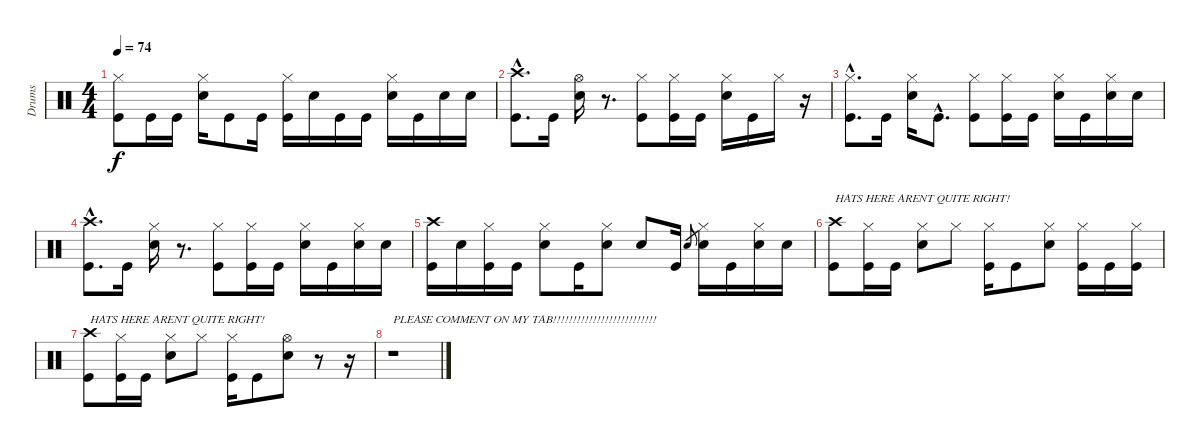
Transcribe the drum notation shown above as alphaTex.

\track ("Drums" "Drums") {instrument percussion}
\staff {score}
\articulation defaults
\ts (4 4)
\tempo 74
\clef neutral
\ks c
("Hi-Hat (closed)" "Kick (hit)").8{dy f} "Kick (hit)".16 "Kick (hit)".16 ("Hi-Hat (closed)" "Snare (hit) 2").16 "Kick (hit)".8 "Kick (hit)".16 ("Hi-Hat (closed)" "Kick (hit)").16 "Snare (hit) 2".16 "Kick (hit)".16 "Kick (hit)".16 ("Hi-Hat (closed)" "Snare (hit) 2").16 "Kick (hit)".16 "Snare (hit) 2".16 "Snare (hit) 2".16 |
("Crash high (hit)"{hac} "Kick (hit)"{hac}).8{d} "Kick (hit)".16 ("Hi-Hat (open)" "Snare (hit) 2").16 r.8{d} ("Hi-Hat (closed)" "Kick (hit)").8 ("Hi-Hat (closed)" "Kick (hit)").16 "Kick (hit)".16 ("Hi-Hat (closed)" "Snare (hit) 2").16 "Kick (hit)".16 "Hi-Hat (closed)".16 r.16 |
("Hi-Hat (closed)"{hac} "Kick (hit)"{hac}).8{d} "Kick (hit)".16 ("Hi-Hat (closed)" "Snare (hit) 2").16 "Kick (hit)"{hac}.8{d} ("Hi-Hat (closed)" "Kick (hit)").8 ("Hi-Hat (closed)" "Kick (hit)").16 "Kick (hit)".16 ("Hi-Hat (closed)" "Snare (hit) 2").16 "Kick (hit)".16 ("Hi-Hat (closed)" "Snare (hit) 2").16 "Snare (hit) 2".16 |
("Crash high (hit)"{hac} "Kick (hit)"{hac}).8{d} "Kick (hit)".16 ("Hi-Hat (closed)" "Snare (hit) 2").16 r.8{d} ("Hi-Hat (closed)" "Kick (hit)").8 ("Hi-Hat (closed)" "Kick (hit)").16 "Kick (hit)".16 ("Hi-Hat (closed)" "Snare (hit) 2").16 "Kick (hit)".16 ("Hi-Hat (closed)" "Snare (hit) 2").16 "Snare (hit) 2".16 |
("Crash high (hit)" "Kick (hit)").16 "Snare (hit) 2".16 ("Hi-Hat (closed)" "Kick (hit)").16 "Kick (hit)".16 ("Hi-Hat (closed)" "Snare (hit) 2").8 "Kick (hit)".16 ("Hi-Hat (closed)" "Snare (hit) 2").8 "Snare (hit) 2".8 "Kick (hit)".16 "Snare (hit) 2".8{gr} ("Hi-Hat (closed)" "Snare (hit) 2").16 "Kick (hit)".16 ("Hi-Hat (closed)" "Snare (hit) 2").16 "Snare (hit) 2".16 |
("Crash high (hit)" "Kick (hit)").8{txt "HATS HERE ARENT QUITE RIGHT!"} ("Hi-Hat (closed)" "Kick (hit)").16 "Kick (hit)".16 ("Hi-Hat (closed)" "Snare (hit) 2").8 "Hi-Hat (closed)".8 ("Hi-Hat (closed)" "Kick (hit)").16 "Kick (hit)".8 ("Hi-Hat (closed)" "Snare (hit) 2").8 ("Hi-Hat (closed)" "Kick (hit)").16 "Kick (hit)".16 ("Hi-Hat (closed)" "Kick (hit)").16 |
("Crash high (hit)" "Kick (hit)").8{txt "HATS HERE ARENT QUITE RIGHT!"} ("Hi-Hat (closed)" "Kick (hit)").16 "Kick (hit)".16 ("Hi-Hat (closed)" "Snare (hit) 2").8 "Hi-Hat (closed)".8 ("Hi-Hat (closed)" "Kick (hit)").16 "Kick (hit)".8 ("Hi-Hat (open)" "Snare (hit) 2").8 r.8 r.16 |
r.1{txt "PLEASE COMMENT ON MY TAB!!!!!!!!!!!!!!!!!!!!!!!!!!"}
